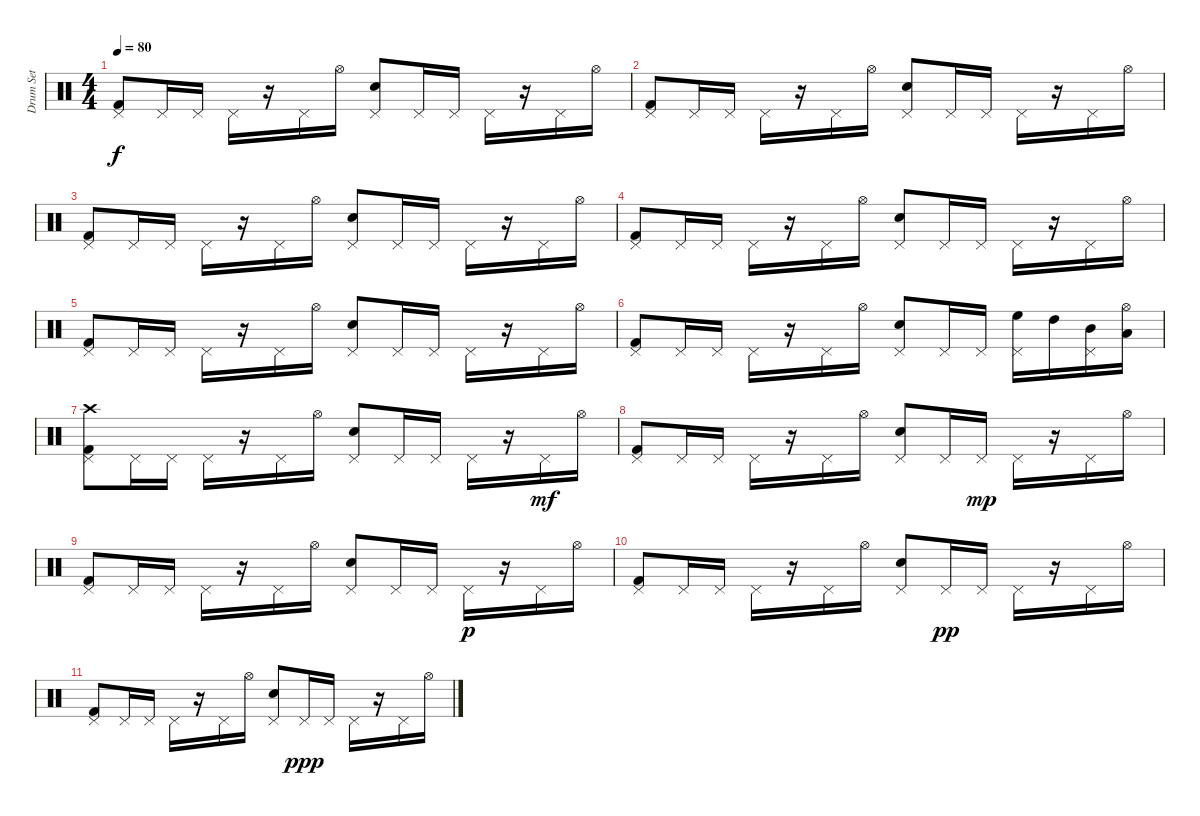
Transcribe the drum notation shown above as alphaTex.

\track ("Drum Set" "Drum Set") {instrument percussion}
\staff {score}
\articulation defaults
\ts (4 4)
\tempo 80
\clef neutral
\ks c
("Pedal Hi-Hat (hit)" "Kick (hit) 2").8{dy f} "Pedal Hi-Hat (hit)".16 "Pedal Hi-Hat (hit)".16 "Pedal Hi-Hat (hit)".16 r.16 "Pedal Hi-Hat (hit)".16 "Hi-Hat (open)".16 ("Pedal Hi-Hat (hit)" "Electric Snare (hit)").8 "Pedal Hi-Hat (hit)".16 "Pedal Hi-Hat (hit)".16 "Pedal Hi-Hat (hit)".16 r.16 "Pedal Hi-Hat (hit)".16 "Hi-Hat (open)".16 |
("Kick (hit) 2" "Pedal Hi-Hat (hit)").8 "Pedal Hi-Hat (hit)".16 "Pedal Hi-Hat (hit)".16 "Pedal Hi-Hat (hit)".16 r.16 "Pedal Hi-Hat (hit)".16 "Hi-Hat (open)".16 ("Electric Snare (hit)" "Pedal Hi-Hat (hit)").8 "Pedal Hi-Hat (hit)".16 "Pedal Hi-Hat (hit)".16 "Pedal Hi-Hat (hit)".16 r.16 "Pedal Hi-Hat (hit)".16 "Hi-Hat (open)".16 |
("Pedal Hi-Hat (hit)" "Kick (hit) 2").8 "Pedal Hi-Hat (hit)".16 "Pedal Hi-Hat (hit)".16 "Pedal Hi-Hat (hit)".16 r.16 "Pedal Hi-Hat (hit)".16 "Hi-Hat (open)".16 ("Pedal Hi-Hat (hit)" "Electric Snare (hit)").8 "Pedal Hi-Hat (hit)".16 "Pedal Hi-Hat (hit)".16 "Pedal Hi-Hat (hit)".16 r.16 "Pedal Hi-Hat (hit)".16 "Hi-Hat (open)".16 |
("Pedal Hi-Hat (hit)" "Kick (hit) 2").8 "Pedal Hi-Hat (hit)".16 "Pedal Hi-Hat (hit)".16 "Pedal Hi-Hat (hit)".16 r.16 "Pedal Hi-Hat (hit)".16 "Hi-Hat (open)".16 ("Pedal Hi-Hat (hit)" "Electric Snare (hit)").8 "Pedal Hi-Hat (hit)".16 "Pedal Hi-Hat (hit)".16 "Pedal Hi-Hat (hit)".16 r.16 "Pedal Hi-Hat (hit)".16 "Hi-Hat (open)".16 |
("Kick (hit) 2" "Pedal Hi-Hat (hit)").8 "Pedal Hi-Hat (hit)".16 "Pedal Hi-Hat (hit)".16 "Pedal Hi-Hat (hit)".16 r.16 "Pedal Hi-Hat (hit)".16 "Hi-Hat (open)".16 ("Electric Snare (hit)" "Pedal Hi-Hat (hit)").8 "Pedal Hi-Hat (hit)".16 "Pedal Hi-Hat (hit)".16 "Pedal Hi-Hat (hit)".16 r.16 "Pedal Hi-Hat (hit)".16 "Hi-Hat (open)".16 |
("Pedal Hi-Hat (hit)" "Kick (hit) 2").8 "Pedal Hi-Hat (hit)".16 "Pedal Hi-Hat (hit)".16 "Pedal Hi-Hat (hit)".16 r.16 "Pedal Hi-Hat (hit)".16 "Hi-Hat (open)".16 ("Pedal Hi-Hat (hit)" "Electric Snare (hit)").8 "Pedal Hi-Hat (hit)".16 "Pedal Hi-Hat (hit)".16 ("Pedal Hi-Hat (hit)" "High Floor Tom (hit)").16 "High Tom (hit)".16 ("Pedal Hi-Hat (hit)" "Mid Tom (hit)").16 ("Hi-Hat (open)" "Low Tom (hit)").16 |
("Pedal Hi-Hat (hit)" "Kick (hit) 2" "Crash high (hit)").8 "Pedal Hi-Hat (hit)".16 "Pedal Hi-Hat (hit)".16 "Pedal Hi-Hat (hit)".16 r.16 "Pedal Hi-Hat (hit)".16 "Hi-Hat (open)".16 ("Pedal Hi-Hat (hit)" "Electric Snare (hit)").8 "Pedal Hi-Hat (hit)".16 "Pedal Hi-Hat (hit)".16 "Pedal Hi-Hat (hit)".16 r.16 "Pedal Hi-Hat (hit)".16{dy mf} "Hi-Hat (open)".16 |
("Pedal Hi-Hat (hit)" "Kick (hit) 2").8 "Pedal Hi-Hat (hit)".16 "Pedal Hi-Hat (hit)".16 "Pedal Hi-Hat (hit)".16 r.16 "Pedal Hi-Hat (hit)".16 "Hi-Hat (open)".16 ("Pedal Hi-Hat (hit)" "Electric Snare (hit)").8 "Pedal Hi-Hat (hit)".16 "Pedal Hi-Hat (hit)".16{dy mp} "Pedal Hi-Hat (hit)".16 r.16 "Pedal Hi-Hat (hit)".16 "Hi-Hat (open)".16 |
("Kick (hit) 2" "Pedal Hi-Hat (hit)").8 "Pedal Hi-Hat (hit)".16 "Pedal Hi-Hat (hit)".16 "Pedal Hi-Hat (hit)".16 r.16 "Pedal Hi-Hat (hit)".16 "Hi-Hat (open)".16 ("Electric Snare (hit)" "Pedal Hi-Hat (hit)").8 "Pedal Hi-Hat (hit)".16 "Pedal Hi-Hat (hit)".16 "Pedal Hi-Hat (hit)".16{dy p} r.16 "Pedal Hi-Hat (hit)".16 "Hi-Hat (open)".16 |
("Pedal Hi-Hat (hit)" "Kick (hit) 2").8 "Pedal Hi-Hat (hit)".16 "Pedal Hi-Hat (hit)".16 "Pedal Hi-Hat (hit)".16 r.16 "Pedal Hi-Hat (hit)".16 "Hi-Hat (open)".16 ("Pedal Hi-Hat (hit)" "Electric Snare (hit)").8 "Pedal Hi-Hat (hit)".16{dy pp} "Pedal Hi-Hat (hit)".16 "Pedal Hi-Hat (hit)".16 r.16 "Pedal Hi-Hat (hit)".16 "Hi-Hat (open)".16 |
("Kick (hit) 2" "Pedal Hi-Hat (hit)").8 "Pedal Hi-Hat (hit)".16 "Pedal Hi-Hat (hit)".16 "Pedal Hi-Hat (hit)".16 r.16 "Pedal Hi-Hat (hit)".16 "Hi-Hat (open)".16 ("Electric Snare (hit)" "Pedal Hi-Hat (hit)").8 "Pedal Hi-Hat (hit)".16{dy ppp} "Pedal Hi-Hat (hit)".16 "Pedal Hi-Hat (hit)".16 r.16 "Pedal Hi-Hat (hit)".16 "Hi-Hat (open)".16
